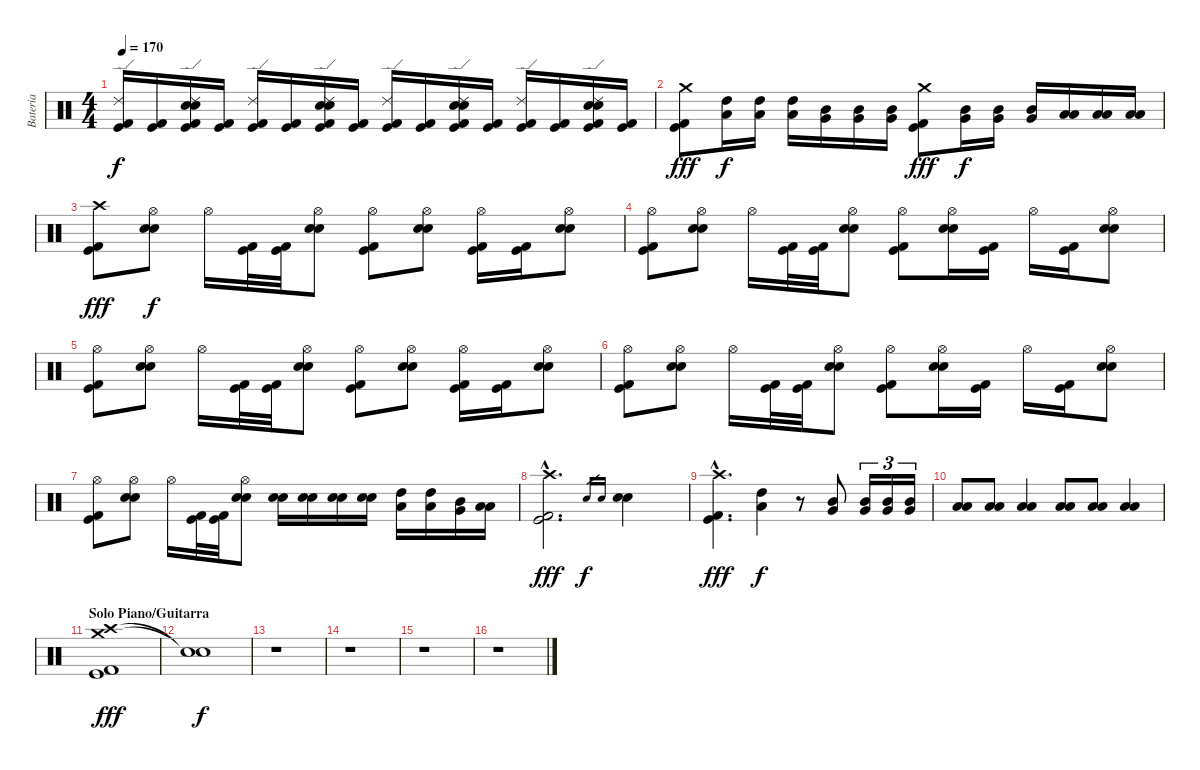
\track ("Bateria" "Bateria") {instrument percussion}
\staff {score}
\articulation defaults
\ts (4 4)
\tempo 170
\clef neutral
\ks c
("Ride (edge) 2" "Kick (hit) 2" "Kick (hit)").16{dy f} ("Kick (hit) 2" "Kick (hit)").16 ("Ride (edge) 2" "Electric Snare (hit)" "Snare (hit) 2" "Kick (hit) 2" "Kick (hit)").16 ("Kick (hit) 2" "Kick (hit)").16 ("Ride (edge) 2" "Kick (hit) 2" "Kick (hit)").16 ("Kick (hit) 2" "Kick (hit)").16 ("Ride (edge) 2" "Electric Snare (hit)" "Snare (hit) 2" "Kick (hit) 2" "Kick (hit)").16 ("Kick (hit) 2" "Kick (hit)").16 ("Ride (edge) 2" "Kick (hit) 2" "Kick (hit)").16 ("Kick (hit) 2" "Kick (hit)").16 ("Ride (edge) 2" "Electric Snare (hit)" "Snare (hit) 2" "Kick (hit) 2" "Kick (hit)").16 ("Kick (hit) 2" "Kick (hit)").16 ("Ride (edge) 2" "Kick (hit) 2" "Kick (hit)").16 ("Kick (hit) 2" "Kick (hit)").16 ("Ride (edge) 2" "Electric Snare (hit)" "Snare (hit) 2" "Kick (hit) 2" "Kick (hit)").16 ("Kick (hit) 2" "Kick (hit)").16 |
("Crash medium (hit)" "Kick (hit) 2" "Kick (hit)").8{dy fff} ("High Tom (hit)" "Low Tom (hit)").16{dy f} ("High Tom (hit)" "Low Tom (hit)").16 ("High Tom (hit)" "Low Tom (hit)").16 ("Mid Tom (hit)" "Very Low Tom (hit)").16 ("Mid Tom (hit)" "Very Low Tom (hit)").16 ("Mid Tom (hit)" "Very Low Tom (hit)").16 ("Crash medium (hit)" "Kick (hit) 2" "Kick (hit)").8{dy fff} ("Mid Tom (hit)" "Very Low Tom (hit)").16{dy f} ("Mid Tom (hit)" "Very Low Tom (hit)").16 ("Mid Tom (hit)" "Very Low Tom (hit)").16 ("Low Tom (hit)" "Low Floor Tom (hit)").16 ("Low Tom (hit)" "Low Floor Tom (hit)").16 ("Low Tom (hit)" "Low Floor Tom (hit)").16 |
("Crash high (hit)" "Kick (hit) 2" "Kick (hit)").8{dy fff} ("Hi-Hat (open)" "Electric Snare (hit)" "Snare (hit) 2").8{dy f} "Hi-Hat (open)".16 ("Kick (hit) 2" "Kick (hit)").32 ("Kick (hit) 2" "Kick (hit)").32 ("Hi-Hat (open)" "Electric Snare (hit)" "Snare (hit) 2").8 ("Hi-Hat (open)" "Kick (hit) 2" "Kick (hit)").8 ("Hi-Hat (open)" "Electric Snare (hit)" "Snare (hit) 2").8 ("Hi-Hat (open)" "Kick (hit) 2" "Kick (hit)").16 ("Kick (hit) 2" "Kick (hit)").16 ("Hi-Hat (open)" "Electric Snare (hit)" "Snare (hit) 2").8 |
("Hi-Hat (open)" "Kick (hit) 2" "Kick (hit)").8 ("Hi-Hat (open)" "Electric Snare (hit)" "Snare (hit) 2").8 "Hi-Hat (open)".16 ("Kick (hit) 2" "Kick (hit)").32 ("Kick (hit) 2" "Kick (hit)").32 ("Hi-Hat (open)" "Electric Snare (hit)" "Snare (hit) 2").8 ("Hi-Hat (open)" "Kick (hit) 2" "Kick (hit)").8 ("Hi-Hat (open)" "Electric Snare (hit)" "Snare (hit) 2").16 ("Kick (hit) 2" "Kick (hit)").16 "Hi-Hat (open)".16 ("Kick (hit) 2" "Kick (hit)").16 ("Hi-Hat (open)" "Electric Snare (hit)" "Snare (hit) 2").8 |
("Hi-Hat (open)" "Kick (hit) 2" "Kick (hit)").8 ("Hi-Hat (open)" "Electric Snare (hit)" "Snare (hit) 2").8 "Hi-Hat (open)".16 ("Kick (hit) 2" "Kick (hit)").32 ("Kick (hit) 2" "Kick (hit)").32 ("Hi-Hat (open)" "Electric Snare (hit)" "Snare (hit) 2").8 ("Hi-Hat (open)" "Kick (hit) 2" "Kick (hit)").8 ("Hi-Hat (open)" "Electric Snare (hit)" "Snare (hit) 2").8 ("Hi-Hat (open)" "Kick (hit) 2" "Kick (hit)").16 ("Kick (hit) 2" "Kick (hit)").16 ("Hi-Hat (open)" "Electric Snare (hit)" "Snare (hit) 2").8 |
("Hi-Hat (open)" "Kick (hit) 2" "Kick (hit)").8 ("Hi-Hat (open)" "Electric Snare (hit)" "Snare (hit) 2").8 "Hi-Hat (open)".16 ("Kick (hit) 2" "Kick (hit)").32 ("Kick (hit) 2" "Kick (hit)").32 ("Hi-Hat (open)" "Electric Snare (hit)" "Snare (hit) 2").8 ("Hi-Hat (open)" "Kick (hit) 2" "Kick (hit)").8 ("Hi-Hat (open)" "Electric Snare (hit)" "Snare (hit) 2").16 ("Kick (hit) 2" "Kick (hit)").16 "Hi-Hat (open)".16 ("Kick (hit) 2" "Kick (hit)").16 ("Hi-Hat (open)" "Electric Snare (hit)" "Snare (hit) 2").8 |
("Hi-Hat (open)" "Kick (hit) 2" "Kick (hit)").8 ("Hi-Hat (open)" "Electric Snare (hit)" "Snare (hit) 2").8 "Hi-Hat (open)".16 ("Kick (hit) 2" "Kick (hit)").32 ("Kick (hit) 2" "Kick (hit)").32 ("Hi-Hat (open)" "Electric Snare (hit)" "Snare (hit) 2").8 ("Electric Snare (hit)" "Snare (hit) 2").16 ("Electric Snare (hit)" "Snare (hit) 2").16 ("Electric Snare (hit)" "Snare (hit) 2").16 ("Electric Snare (hit)" "Snare (hit) 2").16 ("High Tom (hit)" "Low Tom (hit)").16 ("High Tom (hit)" "Low Tom (hit)").16 ("Mid Tom (hit)" "Very Low Tom (hit)").16 ("Low Tom (hit)" "Low Floor Tom (hit)").16 |
("Crash high (hit)"{hac} "Kick (hit) 2"{hac} "Kick (hit)"{hac}).2{d dy fff} "Electric Snare (hit)".16{gr dy f} "Snare (hit) 2".16{gr} ("Electric Snare (hit)" "Snare (hit) 2").4 |
("Crash high (hit)"{hac} "Kick (hit) 2"{hac} "Kick (hit)"{hac}).4{d dy fff} ("High Tom (hit)" "Low Tom (hit)").4{dy f} r.8 ("Mid Tom (hit)" "Very Low Tom (hit)").8 ("Mid Tom (hit)" "Very Low Tom (hit)").16{tu (3 2)} ("Mid Tom (hit)" "Very Low Tom (hit)").16{tu (3 2)} ("Mid Tom (hit)" "Very Low Tom (hit)").16{tu (3 2)} |
("Low Tom (hit)" "Low Floor Tom (hit)").8 ("Low Tom (hit)" "Low Floor Tom (hit)").8 ("Low Tom (hit)" "Low Floor Tom (hit)").4 ("Low Tom (hit)" "Low Floor Tom (hit)").8 ("Low Tom (hit)" "Low Floor Tom (hit)").8 ("Low Tom (hit)" "Low Floor Tom (hit)").4 |
\section ("" "Solo Piano/Guitarra")
("Crash high (hit)" "Crash medium (hit)" "Kick (hit) 2" "Kick (hit)").1{dy fff} |
("Snare (hit)"{t} "Snare (hit)"{t}).1{dy f} |
r.1 |
r.1 |
r.1 |
r.1
